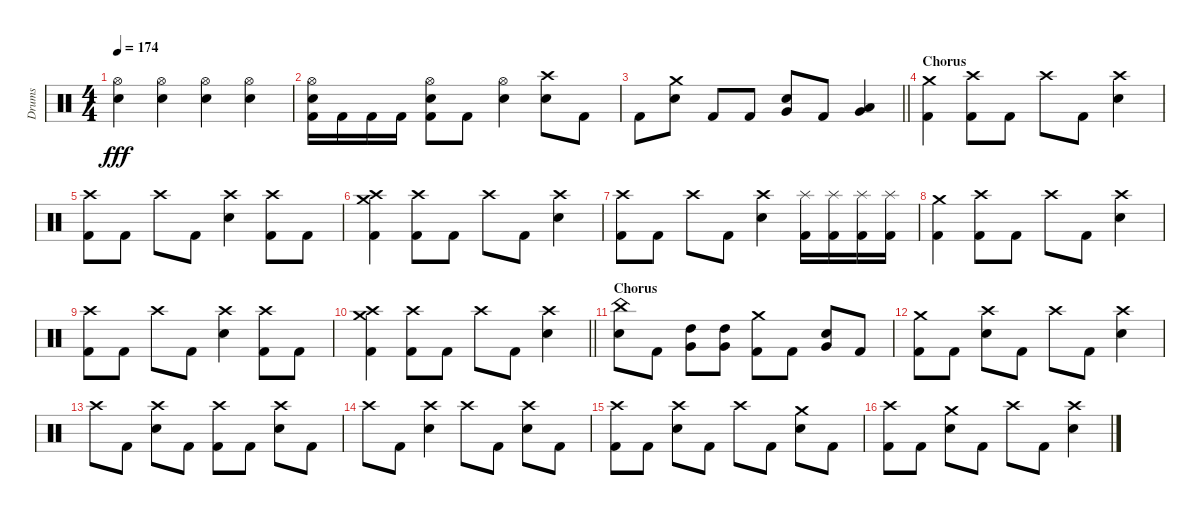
\track ("Drums" "Drums") {instrument percussion}
\staff {score}
\articulation defaults
\ts (4 4)
\tempo 174
\clef neutral
\ks c
("Hi-Hat (open)" "Snare (hit) 2").4{dy fff} ("Hi-Hat (open)" "Snare (hit) 2").4 ("Hi-Hat (open)" "Snare (hit) 2").4 ("Hi-Hat (open)" "Snare (hit) 2").4 |
("Hi-Hat (open)" "Snare (hit) 2" "Kick (hit) 2").16 "Kick (hit) 2".16 "Kick (hit) 2".16 "Kick (hit) 2".16 ("Hi-Hat (open)" "Snare (hit) 2" "Kick (hit) 2").8 "Kick (hit) 2".8 ("Hi-Hat (open)" "Snare (hit) 2").4 ("Crash high (hit)" "Snare (hit) 2").8 "Kick (hit) 2".8 |
\barLineRight lightlight "Kick (hit) 2".8
("Crash medium (hit)" "Snare (hit) 2").8 "Kick (hit) 2".8 "Kick (hit) 2".8 ("Snare (hit) 2" "Very Low Tom (hit)").8 "Kick (hit) 2".8 ("Low Tom (hit)" "Very Low Tom (hit)").4 |
\section ("" "Chorus")
("Crash medium (hit)" "Kick (hit) 2").4 ("Crash high (hit)" "Kick (hit) 2").8 "Kick (hit) 2".8 "Crash high (hit)".8 "Kick (hit) 2".8 ("Crash high (hit)" "Snare (hit) 2").4 |
("Crash high (hit)" "Kick (hit) 2").8 "Kick (hit) 2".8 "Crash high (hit)".8 "Kick (hit) 2".8 ("Crash high (hit)" "Snare (hit) 2").4 ("Crash high (hit)" "Kick (hit) 2").8 "Kick (hit) 2".8 |
("Crash medium (hit)" "Crash high (hit)" "Kick (hit) 2").4 ("Crash high (hit)" "Kick (hit) 2").8 "Kick (hit) 2".8 "Crash high (hit)".8 "Kick (hit) 2".8 ("Crash high (hit)" "Snare (hit) 2").4 |
("Crash high (hit)" "Kick (hit) 2").8 "Kick (hit) 2".8 "Crash high (hit)".8 "Kick (hit) 2".8 ("Crash high (hit)" "Snare (hit) 2").4 ("Splash (hit)" "Kick (hit) 2").16 ("Splash (hit)" "Kick (hit) 2").16 ("Splash (hit)" "Kick (hit) 2").16 ("Splash (hit)" "Kick (hit) 2").16 |
("Crash medium (hit)" "Kick (hit) 2").4 ("Crash high (hit)" "Kick (hit) 2").8 "Kick (hit) 2".8 "Crash high (hit)".8 "Kick (hit) 2".8 ("Crash high (hit)" "Snare (hit) 2").4 |
("Crash high (hit)" "Kick (hit) 2").8 "Kick (hit) 2".8 "Crash high (hit)".8 "Kick (hit) 2".8 ("Crash high (hit)" "Snare (hit) 2").4 ("Crash high (hit)" "Kick (hit) 2").8 "Kick (hit) 2".8 |
\barLineRight lightlight
("Crash medium (hit)" "Crash high (hit)" "Kick (hit) 2").4 ("Crash high (hit)" "Kick (hit) 2").8 "Kick (hit) 2".8 "Crash high (hit)".8 "Kick (hit) 2".8 ("Crash high (hit)" "Snare (hit) 2").4 |
\section ("" "Chorus")
("China (hit)" "Snare (hit) 2").8 "Kick (hit) 2".8 ("High Tom (hit)" "Very Low Tom (hit)").8 ("High Tom (hit)" "Very Low Tom (hit)").8 ("Crash medium (hit)" "Kick (hit) 2").8 "Kick (hit) 2".8 ("Snare (hit) 2" "Very Low Tom (hit)").8 "Kick (hit) 2".8 |
("Crash medium (hit)" "Kick (hit) 2").8 "Kick (hit) 2".8 ("Crash high (hit)" "Snare (hit) 2").8 "Kick (hit) 2".8 "Crash high (hit)".8 "Kick (hit) 2".8 ("Crash high (hit)" "Snare (hit) 2").4 |
"Crash high (hit)".8 "Kick (hit) 2".8 ("Crash high (hit)" "Snare (hit) 2").8 "Kick (hit) 2".8 ("Crash high (hit)" "Kick (hit) 2").8 "Kick (hit) 2".8 ("Crash high (hit)" "Snare (hit) 2").8 "Kick (hit) 2".8 |
"Crash high (hit)".8 "Kick (hit) 2".8 ("Crash high (hit)" "Snare (hit) 2").4 "Crash high (hit)".8 "Kick (hit) 2".8 ("Crash high (hit)" "Snare (hit) 2").8 "Kick (hit) 2".8 |
("Crash high (hit)" "Kick (hit) 2").8 "Kick (hit) 2".8 ("Crash high (hit)" "Snare (hit) 2").8 "Kick (hit) 2".8 "Crash high (hit)".8 "Kick (hit) 2".8 ("Crash medium (hit)" "Snare (hit) 2").8 "Kick (hit) 2".8 |
("Crash high (hit)" "Kick (hit) 2").8 "Kick (hit) 2".8 ("Crash medium (hit)" "Snare (hit) 2").8 "Kick (hit) 2".8 "Crash high (hit)".8 "Kick (hit) 2".8 ("Crash high (hit)" "Snare (hit) 2").4
